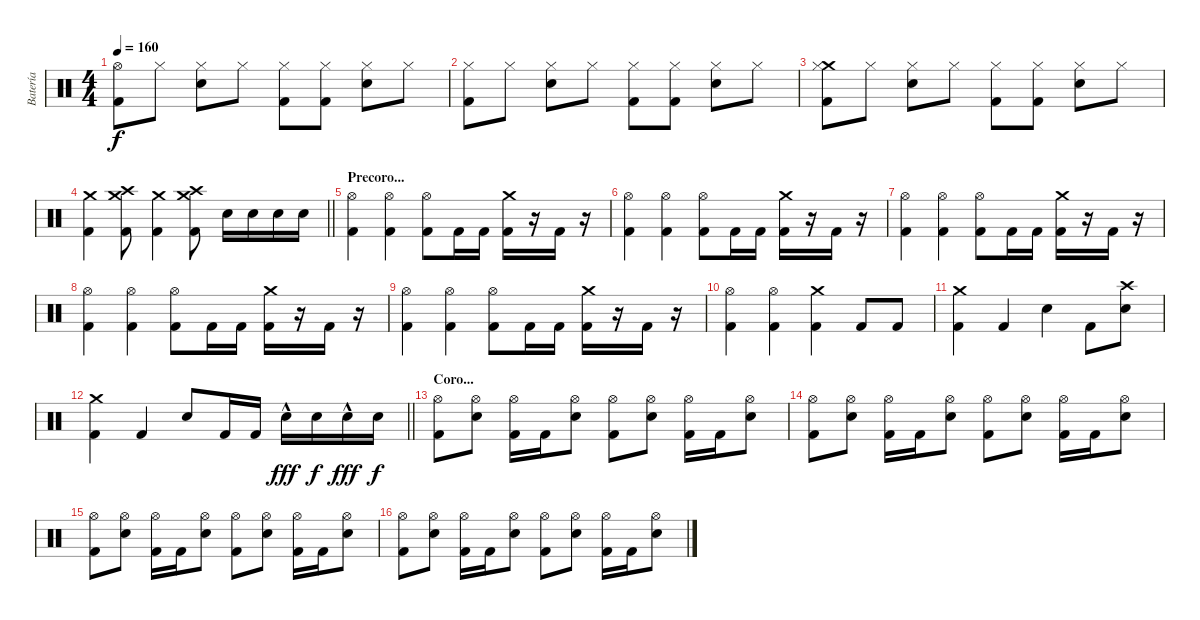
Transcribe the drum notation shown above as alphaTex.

\track ("Batería" "Batería") {instrument percussion}
\staff {score}
\articulation defaults
\ts (4 4)
\tempo 160
\clef neutral
\ks c
("Hi-Hat (open)" "Kick (hit) 2").8{dy f} "Hi-Hat (closed)".8 ("Hi-Hat (closed)" "Snare (hit) 2").8 "Hi-Hat (closed)".8 ("Hi-Hat (closed)" "Kick (hit) 2").8 ("Hi-Hat (closed)" "Kick (hit) 2").8 ("Hi-Hat (closed)" "Snare (hit) 2").8 "Hi-Hat (closed)".8 |
("Hi-Hat (closed)" "Kick (hit) 2").8 "Hi-Hat (closed)".8 ("Hi-Hat (closed)" "Snare (hit) 2").8 "Hi-Hat (closed)".8 ("Hi-Hat (closed)" "Kick (hit) 2").8 ("Hi-Hat (closed)" "Kick (hit) 2").8 ("Hi-Hat (closed)" "Snare (hit) 2").8 "Hi-Hat (closed)".8 |
("Crash medium (hit)" "Hi-Hat (closed)" "Kick (hit) 2").8 "Hi-Hat (closed)".8 ("Hi-Hat (closed)" "Snare (hit) 2").8 "Hi-Hat (closed)".8 ("Hi-Hat (closed)" "Kick (hit) 2").8 ("Hi-Hat (closed)" "Kick (hit) 2").8 ("Hi-Hat (closed)" "Snare (hit) 2").8 "Hi-Hat (closed)".8 |
\barLineRight lightlight
("Crash medium (hit)" "Kick (hit) 2").4 ("Crash high (hit)" "Crash medium (hit)" "Kick (hit) 2").8 ("Crash medium (hit)" "Kick (hit) 2").4 ("Crash high (hit)" "Crash medium (hit)" "Kick (hit) 2").8 "Snare (hit) 2".16 "Snare (hit) 2".16 "Snare (hit) 2".16 "Snare (hit) 2".16 |
\section ("" "Precoro...")
("Hi-Hat (open)" "Kick (hit) 2").4 ("Hi-Hat (open)" "Kick (hit) 2").4 ("Hi-Hat (open)" "Kick (hit) 2").8 "Kick (hit) 2".16 "Kick (hit) 2".16 ("Crash medium (hit)" "Kick (hit) 2").16 r.16 "Kick (hit) 2".16 r.16 |
("Hi-Hat (open)" "Kick (hit) 2").4 ("Hi-Hat (open)" "Kick (hit) 2").4 ("Hi-Hat (open)" "Kick (hit) 2").8 "Kick (hit) 2".16 "Kick (hit) 2".16 ("Crash medium (hit)" "Kick (hit) 2").16 r.16 "Kick (hit) 2".16 r.16 |
("Hi-Hat (open)" "Kick (hit) 2").4 ("Hi-Hat (open)" "Kick (hit) 2").4 ("Hi-Hat (open)" "Kick (hit) 2").8 "Kick (hit) 2".16 "Kick (hit) 2".16 ("Crash medium (hit)" "Kick (hit) 2").16 r.16 "Kick (hit) 2".16 r.16 |
("Hi-Hat (open)" "Kick (hit) 2").4 ("Hi-Hat (open)" "Kick (hit) 2").4 ("Hi-Hat (open)" "Kick (hit) 2").8 "Kick (hit) 2".16 "Kick (hit) 2".16 ("Crash medium (hit)" "Kick (hit) 2").16 r.16 "Kick (hit) 2".16 r.16 |
("Hi-Hat (open)" "Kick (hit) 2").4 ("Hi-Hat (open)" "Kick (hit) 2").4 ("Hi-Hat (open)" "Kick (hit) 2").8 "Kick (hit) 2".16 "Kick (hit) 2".16 ("Crash medium (hit)" "Kick (hit) 2").16 r.16 "Kick (hit) 2".16 r.16 |
("Hi-Hat (open)" "Kick (hit) 2").4 ("Hi-Hat (open)" "Kick (hit) 2").4 ("Crash medium (hit)" "Kick (hit) 2").4 "Kick (hit) 2".8 "Kick (hit) 2".8 |
("Crash medium (hit)" "Kick (hit) 2").4 "Kick (hit) 2".4 "Snare (hit) 2".4 "Kick (hit) 2".8 ("Crash high (hit)" "Snare (hit) 2").8 |
\barLineRight lightlight
("Crash medium (hit)" "Kick (hit) 2").4 "Kick (hit) 2".4 "Snare (hit) 2".8 "Kick (hit) 2".16 "Kick (hit) 2".16 "Snare (hit) 2"{hac}.16{dy fff} "Snare (hit) 2".16{dy f} "Snare (hit) 2"{hac}.16{dy fff} "Snare (hit) 2".16{dy f} |
\section ("" "Coro...")
("Hi-Hat (open)" "Kick (hit) 2").8 ("Hi-Hat (open)" "Snare (hit) 2").8 ("Hi-Hat (open)" "Kick (hit) 2").16 "Kick (hit) 2".16 ("Hi-Hat (open)" "Snare (hit) 2").8 ("Hi-Hat (open)" "Kick (hit) 2").8 ("Hi-Hat (open)" "Snare (hit) 2").8 ("Hi-Hat (open)" "Kick (hit) 2").16 "Kick (hit) 2".16 ("Hi-Hat (open)" "Snare (hit) 2").8 |
("Hi-Hat (open)" "Kick (hit) 2").8 ("Hi-Hat (open)" "Snare (hit) 2").8 ("Hi-Hat (open)" "Kick (hit) 2").16 "Kick (hit) 2".16 ("Hi-Hat (open)" "Snare (hit) 2").8 ("Hi-Hat (open)" "Kick (hit) 2").8 ("Hi-Hat (open)" "Snare (hit) 2").8 ("Hi-Hat (open)" "Kick (hit) 2").16 "Kick (hit) 2".16 ("Hi-Hat (open)" "Snare (hit) 2").8 |
("Hi-Hat (open)" "Kick (hit) 2").8 ("Hi-Hat (open)" "Snare (hit) 2").8 ("Hi-Hat (open)" "Kick (hit) 2").16 "Kick (hit) 2".16 ("Hi-Hat (open)" "Snare (hit) 2").8 ("Hi-Hat (open)" "Kick (hit) 2").8 ("Hi-Hat (open)" "Snare (hit) 2").8 ("Hi-Hat (open)" "Kick (hit) 2").16 "Kick (hit) 2".16 ("Hi-Hat (open)" "Snare (hit) 2").8 |
("Hi-Hat (open)" "Kick (hit) 2").8 ("Hi-Hat (open)" "Snare (hit) 2").8 ("Hi-Hat (open)" "Kick (hit) 2").16 "Kick (hit) 2".16 ("Hi-Hat (open)" "Snare (hit) 2").8 ("Hi-Hat (open)" "Kick (hit) 2").8 ("Hi-Hat (open)" "Snare (hit) 2").8 ("Hi-Hat (open)" "Kick (hit) 2").16 "Kick (hit) 2".16 ("Hi-Hat (open)" "Snare (hit) 2").8
